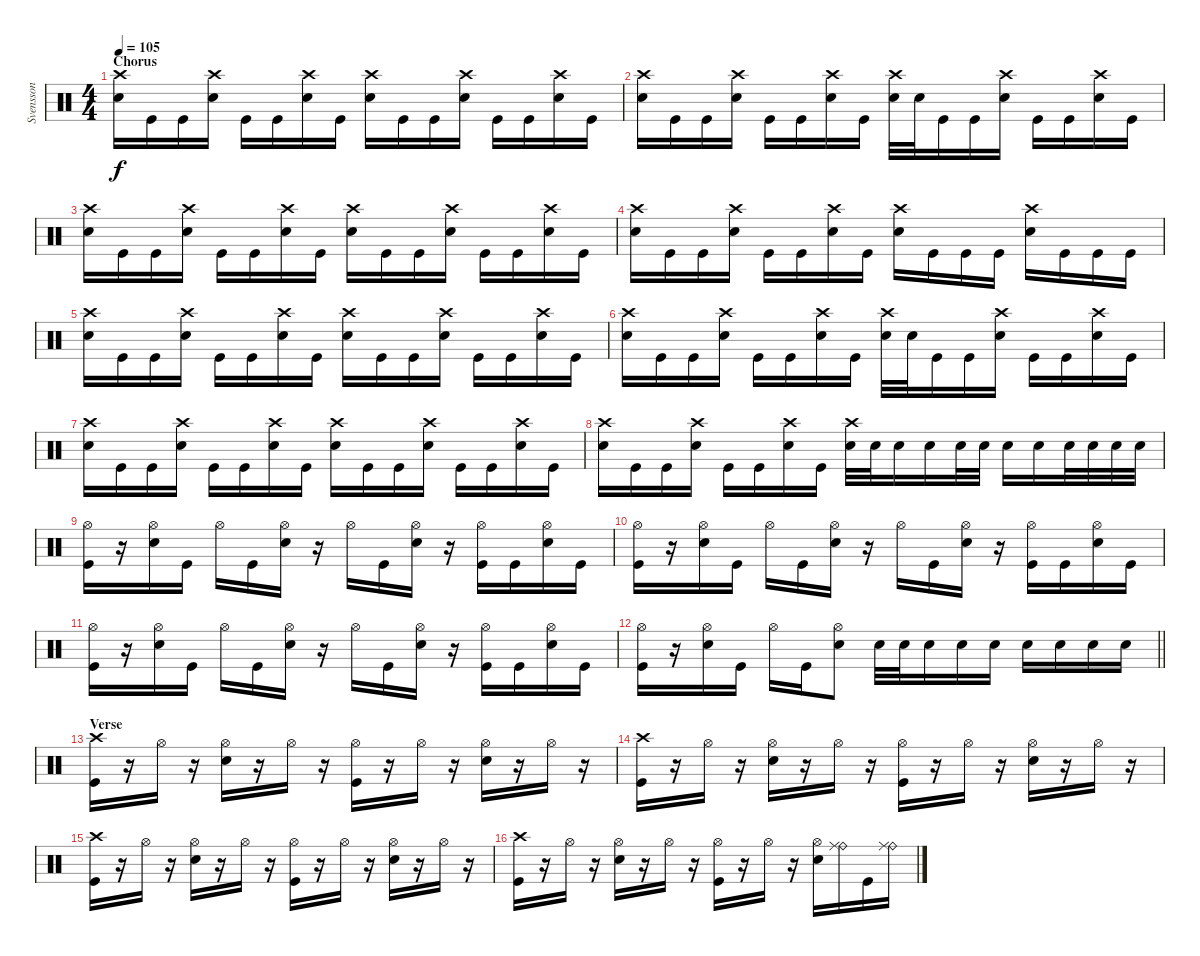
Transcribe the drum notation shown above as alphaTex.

\track ("Svensson" "Svensson") {instrument percussion}
\staff {score}
\articulation defaults
\ts (4 4)
\section ("" "Chorus")
\tempo 105
\clef neutral
\ks c
("Crash high (hit)" "Snare (hit) 2").16{dy f} "Kick (hit)".16 "Kick (hit)".16 ("Crash high (hit)" "Snare (hit) 2").16 "Kick (hit)".16 "Kick (hit)".16 ("Crash high (hit)" "Snare (hit) 2").16 "Kick (hit)".16 ("Crash high (hit)" "Snare (hit) 2").16 "Kick (hit)".16 "Kick (hit)".16 ("Crash high (hit)" "Snare (hit) 2").16 "Kick (hit)".16 "Kick (hit)".16 ("Crash high (hit)" "Snare (hit) 2").16 "Kick (hit)".16 |
("Crash high (hit)" "Snare (hit) 2").16 "Kick (hit)".16 "Kick (hit)".16 ("Crash high (hit)" "Snare (hit) 2").16 "Kick (hit)".16 "Kick (hit)".16 ("Crash high (hit)" "Snare (hit) 2").16 "Kick (hit)".16 ("Crash high (hit)" "Snare (hit) 2").32 "Snare (hit) 2".32 "Kick (hit)".16 "Kick (hit)".16 ("Crash high (hit)" "Snare (hit) 2").16 "Kick (hit)".16 "Kick (hit)".16 ("Crash high (hit)" "Snare (hit) 2").16 "Kick (hit)".16 |
("Crash high (hit)" "Snare (hit) 2").16 "Kick (hit)".16 "Kick (hit)".16 ("Crash high (hit)" "Snare (hit) 2").16 "Kick (hit)".16 "Kick (hit)".16 ("Crash high (hit)" "Snare (hit) 2").16 "Kick (hit)".16 ("Crash high (hit)" "Snare (hit) 2").16 "Kick (hit)".16 "Kick (hit)".16 ("Crash high (hit)" "Snare (hit) 2").16 "Kick (hit)".16 "Kick (hit)".16 ("Crash high (hit)" "Snare (hit) 2").16 "Kick (hit)".16 |
("Crash high (hit)" "Snare (hit) 2").16 "Kick (hit)".16 "Kick (hit)".16 ("Crash high (hit)" "Snare (hit) 2").16 "Kick (hit)".16 "Kick (hit)".16 ("Crash high (hit)" "Snare (hit) 2").16 "Kick (hit)".16 ("Crash high (hit)" "Snare (hit) 2").16 "Kick (hit)".16 "Kick (hit)".16 "Kick (hit)".16 ("Crash high (hit)" "Snare (hit) 2").16 "Kick (hit)".16 "Kick (hit)".16 "Kick (hit)".16 |
("Crash high (hit)" "Snare (hit) 2").16 "Kick (hit)".16 "Kick (hit)".16 ("Crash high (hit)" "Snare (hit) 2").16 "Kick (hit)".16 "Kick (hit)".16 ("Crash high (hit)" "Snare (hit) 2").16 "Kick (hit)".16 ("Crash high (hit)" "Snare (hit) 2").16 "Kick (hit)".16 "Kick (hit)".16 ("Crash high (hit)" "Snare (hit) 2").16 "Kick (hit)".16 "Kick (hit)".16 ("Crash high (hit)" "Snare (hit) 2").16 "Kick (hit)".16 |
("Crash high (hit)" "Snare (hit) 2").16 "Kick (hit)".16 "Kick (hit)".16 ("Crash high (hit)" "Snare (hit) 2").16 "Kick (hit)".16 "Kick (hit)".16 ("Crash high (hit)" "Snare (hit) 2").16 "Kick (hit)".16 ("Crash high (hit)" "Snare (hit) 2").32 "Snare (hit) 2".32 "Kick (hit)".16 "Kick (hit)".16 ("Crash high (hit)" "Snare (hit) 2").16 "Kick (hit)".16 "Kick (hit)".16 ("Crash high (hit)" "Snare (hit) 2").16 "Kick (hit)".16 |
("Crash high (hit)" "Snare (hit) 2").16 "Kick (hit)".16 "Kick (hit)".16 ("Crash high (hit)" "Snare (hit) 2").16 "Kick (hit)".16 "Kick (hit)".16 ("Crash high (hit)" "Snare (hit) 2").16 "Kick (hit)".16 ("Crash high (hit)" "Snare (hit) 2").16 "Kick (hit)".16 "Kick (hit)".16 ("Crash high (hit)" "Snare (hit) 2").16 "Kick (hit)".16 "Kick (hit)".16 ("Crash high (hit)" "Snare (hit) 2").16 "Kick (hit)".16 |
("Crash high (hit)" "Snare (hit) 2").16 "Kick (hit)".16 "Kick (hit)".16 ("Crash high (hit)" "Snare (hit) 2").16 "Kick (hit)".16 "Kick (hit)".16 ("Crash high (hit)" "Snare (hit) 2").16 "Kick (hit)".16 ("Crash high (hit)" "Snare (hit) 2").32 "Snare (hit) 2".32 "Snare (hit) 2".16 "Snare (hit) 2".16 "Snare (hit) 2".32 "Snare (hit) 2".32 "Snare (hit) 2".16 "Snare (hit) 2".16 "Snare (hit) 2".32 "Snare (hit) 2".32 "Snare (hit) 2".32 "Snare (hit) 2".32 |
("Hi-Hat (open)" "Kick (hit)").16 r.16 ("Hi-Hat (open)" "Snare (hit) 2").16 "Kick (hit)".16 "Hi-Hat (open)".16 "Kick (hit)".16 ("Hi-Hat (open)" "Snare (hit) 2").16 r.16 "Hi-Hat (open)".16 "Kick (hit)".16 ("Hi-Hat (open)" "Snare (hit) 2").16 r.16 ("Hi-Hat (open)" "Kick (hit)").16 "Kick (hit)".16 ("Hi-Hat (open)" "Snare (hit) 2").16 "Kick (hit)".16 |
("Hi-Hat (open)" "Kick (hit)").16 r.16 ("Hi-Hat (open)" "Snare (hit) 2").16 "Kick (hit)".16 "Hi-Hat (open)".16 "Kick (hit)".16 ("Hi-Hat (open)" "Snare (hit) 2").16 r.16 "Hi-Hat (open)".16 "Kick (hit)".16 ("Hi-Hat (open)" "Snare (hit) 2").16 r.16 ("Hi-Hat (open)" "Kick (hit)").16 "Kick (hit)".16 ("Hi-Hat (open)" "Snare (hit) 2").16 "Kick (hit)".16 |
("Hi-Hat (open)" "Kick (hit)").16 r.16 ("Hi-Hat (open)" "Snare (hit) 2").16 "Kick (hit)".16 "Hi-Hat (open)".16 "Kick (hit)".16 ("Hi-Hat (open)" "Snare (hit) 2").16 r.16 "Hi-Hat (open)".16 "Kick (hit)".16 ("Hi-Hat (open)" "Snare (hit) 2").16 r.16 ("Hi-Hat (open)" "Kick (hit)").16 "Kick (hit)".16 ("Hi-Hat (open)" "Snare (hit) 2").16 "Kick (hit)".16 |
\barLineRight lightlight
("Hi-Hat (open)" "Kick (hit)").16 r.16 ("Hi-Hat (open)" "Snare (hit) 2").16 "Kick (hit)".16 "Hi-Hat (open)".16 "Kick (hit)".16 ("Hi-Hat (open)" "Snare (hit) 2").8 "Snare (hit) 2".32 "Snare (hit) 2".32 "Snare (hit) 2".16 "Snare (hit) 2".16 "Snare (hit) 2".16 "Snare (hit) 2".16 "Snare (hit) 2".16 "Snare (hit) 2".16 "Snare (hit) 2".16 |
\section ("" "Verse")
("Crash high (hit)" "Kick (hit)").16 r.16 "Hi-Hat (open)".16 r.16 ("Hi-Hat (open)" "Snare (hit) 2").16 r.16 "Hi-Hat (open)".16 r.16 ("Hi-Hat (open)" "Kick (hit)").16 r.16 "Hi-Hat (open)".16 r.16 ("Hi-Hat (open)" "Snare (hit) 2").16 r.16 "Hi-Hat (open)".16 r.16 |
("Crash high (hit)" "Kick (hit)").16 r.16 "Hi-Hat (open)".16 r.16 ("Hi-Hat (open)" "Snare (hit) 2").16 r.16 "Hi-Hat (open)".16 r.16 ("Hi-Hat (open)" "Kick (hit)").16 r.16 "Hi-Hat (open)".16 r.16 ("Hi-Hat (open)" "Snare (hit) 2").16 r.16 "Hi-Hat (open)".16 r.16 |
("Crash high (hit)" "Kick (hit)").16 r.16 "Hi-Hat (open)".16 r.16 ("Hi-Hat (open)" "Snare (hit) 2").16 r.16 "Hi-Hat (open)".16 r.16 ("Hi-Hat (open)" "Kick (hit)").16 r.16 "Hi-Hat (open)".16 r.16 ("Hi-Hat (open)" "Snare (hit) 2").16 r.16 "Hi-Hat (open)".16 r.16 |
("Crash high (hit)" "Kick (hit)").16 r.16 "Hi-Hat (open)".16 r.16 ("Hi-Hat (open)" "Snare (hit) 2").16 r.16 "Hi-Hat (open)".16 r.16 ("Hi-Hat (open)" "Kick (hit)").16 r.16 "Hi-Hat (open)".16 r.16 ("Hi-Hat (open)" "Snare (hit) 2").16 ("Ride (bell)" "Ride (middle)").16 "Kick (hit)".16 ("Ride (bell)" "Ride (middle)").16
